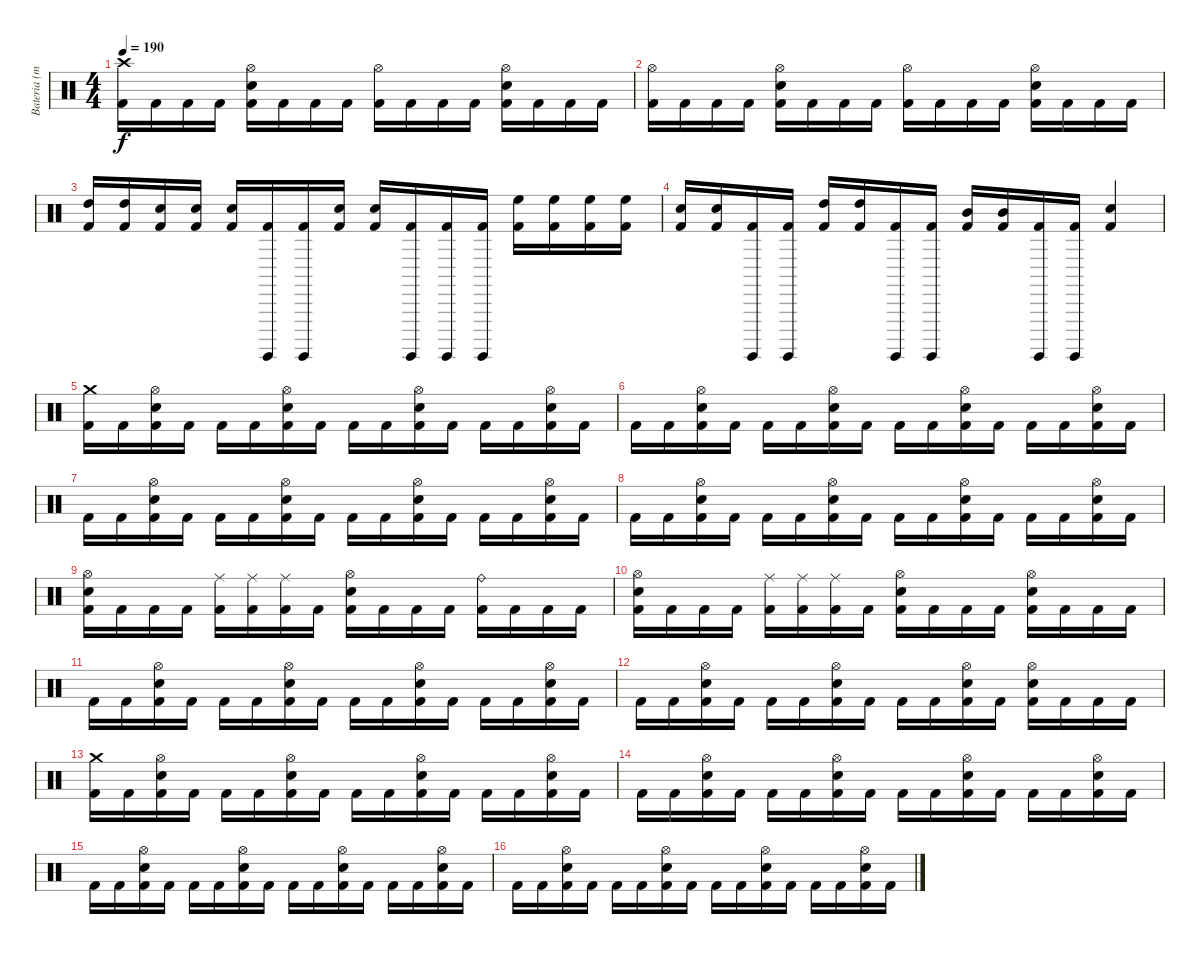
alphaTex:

\track ("Bateria (mestre Aquiles Priester)" "Bateria (m") {instrument percussion}
\staff {score}
\articulation defaults
\ts (4 4)
\tempo 190
\clef neutral
\ks c
("Kick (hit) 2" "Crash high (hit)").16{dy f} "Kick (hit) 2".16 "Kick (hit) 2".16 "Kick (hit) 2".16 ("Kick (hit) 2" "Electric Snare (hit)" "Hi-Hat (open)").16 "Kick (hit) 2".16 "Kick (hit) 2".16 "Kick (hit) 2".16 ("Kick (hit) 2" "Hi-Hat (open)").16 "Kick (hit) 2".16 "Kick (hit) 2".16 "Kick (hit) 2".16 ("Kick (hit) 2" "Electric Snare (hit)" "Hi-Hat (open)").16 "Kick (hit) 2".16 "Kick (hit) 2".16 "Kick (hit) 2".16 |
("Kick (hit) 2" "Hi-Hat (open)").16 "Kick (hit) 2".16 "Kick (hit) 2".16 "Kick (hit) 2".16 ("Kick (hit) 2" "Electric Snare (hit)" "Hi-Hat (open)").16 "Kick (hit) 2".16 "Kick (hit) 2".16 "Kick (hit) 2".16 ("Kick (hit) 2" "Hi-Hat (open)").16 "Kick (hit) 2".16 "Kick (hit) 2".16 "Kick (hit) 2".16 ("Kick (hit) 2" "Electric Snare (hit)" "Hi-Hat (open)").16 "Kick (hit) 2".16 "Kick (hit) 2".16 "Kick (hit) 2".16 |
("Kick (hit) 2" "High Tom (hit)").16 ("Kick (hit) 2" "High Tom (hit)").16 ("Kick (hit) 2" "Electric Snare (hit)").16 ("Kick (hit) 2" "Electric Snare (hit)").16 ("Kick (hit) 2" "Electric Snare (hit)").16 ("Kick (hit) 2" "Surdo (hit)").16 ("Kick (hit) 2" "Surdo (hit)").16 ("Kick (hit) 2" "Electric Snare (hit)").16 ("Kick (hit) 2" "Electric Snare (hit)").16 ("Kick (hit) 2" "Surdo (hit)").16 ("Kick (hit) 2" "Surdo (hit)").16 ("Kick (hit) 2" "Surdo (hit)").16 ("Kick (hit) 2" "High Floor Tom (hit)").16 ("Kick (hit) 2" "High Floor Tom (hit)").16 ("Kick (hit) 2" "High Floor Tom (hit)").16 ("Kick (hit) 2" "High Floor Tom (hit)").16 |
("Kick (hit) 2" "Electric Snare (hit)").16 ("Kick (hit) 2" "Electric Snare (hit)").16 ("Kick (hit) 2" "Surdo (hit)").16 ("Kick (hit) 2" "Surdo (hit)").16 ("Kick (hit) 2" "High Tom (hit)").16 ("Kick (hit) 2" "High Tom (hit)").16 ("Kick (hit) 2" "Surdo (hit)").16 ("Kick (hit) 2" "Surdo (hit)").16 ("Kick (hit) 2" "Mid Tom (hit)").16 ("Kick (hit) 2" "Mid Tom (hit)").16 ("Kick (hit) 2" "Surdo (hit)").16 ("Kick (hit) 2" "Surdo (hit)").16 ("Kick (hit) 2" "Electric Snare (hit)").4 |
("Kick (hit) 2" "Crash medium (hit)").16 "Kick (hit) 2".16 ("Kick (hit) 2" "Electric Snare (hit)" "Hi-Hat (open)").16 "Kick (hit) 2".16 "Kick (hit) 2".16 "Kick (hit) 2".16 ("Kick (hit) 2" "Electric Snare (hit)" "Hi-Hat (open)").16 "Kick (hit) 2".16 "Kick (hit) 2".16 "Kick (hit) 2".16 ("Kick (hit) 2" "Electric Snare (hit)" "Hi-Hat (open)").16 "Kick (hit) 2".16 "Kick (hit) 2".16 "Kick (hit) 2".16 ("Kick (hit) 2" "Electric Snare (hit)" "Hi-Hat (open)").16 "Kick (hit) 2".16 |
"Kick (hit) 2".16 "Kick (hit) 2".16 ("Kick (hit) 2" "Electric Snare (hit)" "Hi-Hat (open)").16 "Kick (hit) 2".16 "Kick (hit) 2".16 "Kick (hit) 2".16 ("Kick (hit) 2" "Electric Snare (hit)" "Hi-Hat (open)").16 "Kick (hit) 2".16 "Kick (hit) 2".16 "Kick (hit) 2".16 ("Kick (hit) 2" "Electric Snare (hit)" "Hi-Hat (open)").16 "Kick (hit) 2".16 "Kick (hit) 2".16 "Kick (hit) 2".16 ("Kick (hit) 2" "Electric Snare (hit)" "Hi-Hat (open)").16 "Kick (hit) 2".16 |
"Kick (hit) 2".16 "Kick (hit) 2".16 ("Kick (hit) 2" "Electric Snare (hit)" "Hi-Hat (open)").16 "Kick (hit) 2".16 "Kick (hit) 2".16 "Kick (hit) 2".16 ("Kick (hit) 2" "Electric Snare (hit)" "Hi-Hat (open)").16 "Kick (hit) 2".16 "Kick (hit) 2".16 "Kick (hit) 2".16 ("Kick (hit) 2" "Electric Snare (hit)" "Hi-Hat (open)").16 "Kick (hit) 2".16 "Kick (hit) 2".16 "Kick (hit) 2".16 ("Kick (hit) 2" "Electric Snare (hit)" "Hi-Hat (open)").16 "Kick (hit) 2".16 |
"Kick (hit) 2".16 "Kick (hit) 2".16 ("Kick (hit) 2" "Electric Snare (hit)" "Hi-Hat (open)").16 "Kick (hit) 2".16 "Kick (hit) 2".16 "Kick (hit) 2".16 ("Kick (hit) 2" "Electric Snare (hit)" "Hi-Hat (open)").16 "Kick (hit) 2".16 "Kick (hit) 2".16 "Kick (hit) 2".16 ("Kick (hit) 2" "Electric Snare (hit)" "Hi-Hat (open)").16 "Kick (hit) 2".16 "Kick (hit) 2".16 "Kick (hit) 2".16 ("Kick (hit) 2" "Electric Snare (hit)" "Hi-Hat (open)").16 "Kick (hit) 2".16 |
("Kick (hit) 2" "Electric Snare (hit)" "Hi-Hat (open)").16 "Kick (hit) 2".16 "Kick (hit) 2".16 "Kick (hit) 2".16 ("Kick (hit) 2" "Ride (middle)").16 ("Kick (hit) 2" "Ride (middle)").16 ("Kick (hit) 2" "Ride (middle)").16 "Kick (hit) 2".16 ("Kick (hit) 2" "Electric Snare (hit)" "Hi-Hat (open)").16 "Kick (hit) 2".16 "Kick (hit) 2".16 "Kick (hit) 2".16 ("Kick (hit) 2" "Ride (bell)").16 "Kick (hit) 2".16 "Kick (hit) 2".16 "Kick (hit) 2".16 |
("Kick (hit) 2" "Electric Snare (hit)" "Hi-Hat (open)").16 "Kick (hit) 2".16 "Kick (hit) 2".16 "Kick (hit) 2".16 ("Kick (hit) 2" "Ride (middle)").16 ("Kick (hit) 2" "Ride (middle)").16 ("Kick (hit) 2" "Ride (middle)").16 "Kick (hit) 2".16 ("Kick (hit) 2" "Electric Snare (hit)" "Hi-Hat (open)").16 "Kick (hit) 2".16 "Kick (hit) 2".16 "Kick (hit) 2".16 ("Kick (hit) 2" "Electric Snare (hit)" "Hi-Hat (open)").16 "Kick (hit) 2".16 "Kick (hit) 2".16 "Kick (hit) 2".16 |
"Kick (hit) 2".16 "Kick (hit) 2".16 ("Kick (hit) 2" "Electric Snare (hit)" "Hi-Hat (open)").16 "Kick (hit) 2".16 "Kick (hit) 2".16 "Kick (hit) 2".16 ("Kick (hit) 2" "Electric Snare (hit)" "Hi-Hat (open)").16 "Kick (hit) 2".16 "Kick (hit) 2".16 "Kick (hit) 2".16 ("Kick (hit) 2" "Electric Snare (hit)" "Hi-Hat (open)").16 "Kick (hit) 2".16 "Kick (hit) 2".16 "Kick (hit) 2".16 ("Kick (hit) 2" "Electric Snare (hit)" "Hi-Hat (open)").16 "Kick (hit) 2".16 |
"Kick (hit) 2".16 "Kick (hit) 2".16 ("Kick (hit) 2" "Electric Snare (hit)" "Hi-Hat (open)").16 "Kick (hit) 2".16 "Kick (hit) 2".16 "Kick (hit) 2".16 ("Kick (hit) 2" "Electric Snare (hit)" "Hi-Hat (open)").16 "Kick (hit) 2".16 "Kick (hit) 2".16 "Kick (hit) 2".16 ("Kick (hit) 2" "Electric Snare (hit)" "Hi-Hat (open)").16 "Kick (hit) 2".16 ("Kick (hit) 2" "Electric Snare (hit)" "Hi-Hat (open)").16 "Kick (hit) 2".16 "Kick (hit) 2".16 "Kick (hit) 2".16 |
("Kick (hit) 2" "Crash medium (hit)").16 "Kick (hit) 2".16 ("Kick (hit) 2" "Electric Snare (hit)" "Hi-Hat (open)").16 "Kick (hit) 2".16 "Kick (hit) 2".16 "Kick (hit) 2".16 ("Kick (hit) 2" "Electric Snare (hit)" "Hi-Hat (open)").16 "Kick (hit) 2".16 "Kick (hit) 2".16 "Kick (hit) 2".16 ("Kick (hit) 2" "Electric Snare (hit)" "Hi-Hat (open)").16 "Kick (hit) 2".16 "Kick (hit) 2".16 "Kick (hit) 2".16 ("Kick (hit) 2" "Electric Snare (hit)" "Hi-Hat (open)").16 "Kick (hit) 2".16 |
"Kick (hit) 2".16 "Kick (hit) 2".16 ("Kick (hit) 2" "Electric Snare (hit)" "Hi-Hat (open)").16 "Kick (hit) 2".16 "Kick (hit) 2".16 "Kick (hit) 2".16 ("Kick (hit) 2" "Electric Snare (hit)" "Hi-Hat (open)").16 "Kick (hit) 2".16 "Kick (hit) 2".16 "Kick (hit) 2".16 ("Kick (hit) 2" "Electric Snare (hit)" "Hi-Hat (open)").16 "Kick (hit) 2".16 "Kick (hit) 2".16 "Kick (hit) 2".16 ("Kick (hit) 2" "Electric Snare (hit)" "Hi-Hat (open)").16 "Kick (hit) 2".16 |
"Kick (hit) 2".16 "Kick (hit) 2".16 ("Kick (hit) 2" "Electric Snare (hit)" "Hi-Hat (open)").16 "Kick (hit) 2".16 "Kick (hit) 2".16 "Kick (hit) 2".16 ("Kick (hit) 2" "Electric Snare (hit)" "Hi-Hat (open)").16 "Kick (hit) 2".16 "Kick (hit) 2".16 "Kick (hit) 2".16 ("Kick (hit) 2" "Electric Snare (hit)" "Hi-Hat (open)").16 "Kick (hit) 2".16 "Kick (hit) 2".16 "Kick (hit) 2".16 ("Kick (hit) 2" "Electric Snare (hit)" "Hi-Hat (open)").16 "Kick (hit) 2".16 |
"Kick (hit) 2".16 "Kick (hit) 2".16 ("Kick (hit) 2" "Electric Snare (hit)" "Hi-Hat (open)").16 "Kick (hit) 2".16 "Kick (hit) 2".16 "Kick (hit) 2".16 ("Kick (hit) 2" "Electric Snare (hit)" "Hi-Hat (open)").16 "Kick (hit) 2".16 "Kick (hit) 2".16 "Kick (hit) 2".16 ("Kick (hit) 2" "Electric Snare (hit)" "Hi-Hat (open)").16 "Kick (hit) 2".16 "Kick (hit) 2".16 "Kick (hit) 2".16 ("Kick (hit) 2" "Electric Snare (hit)" "Hi-Hat (open)").16 "Kick (hit) 2".16
